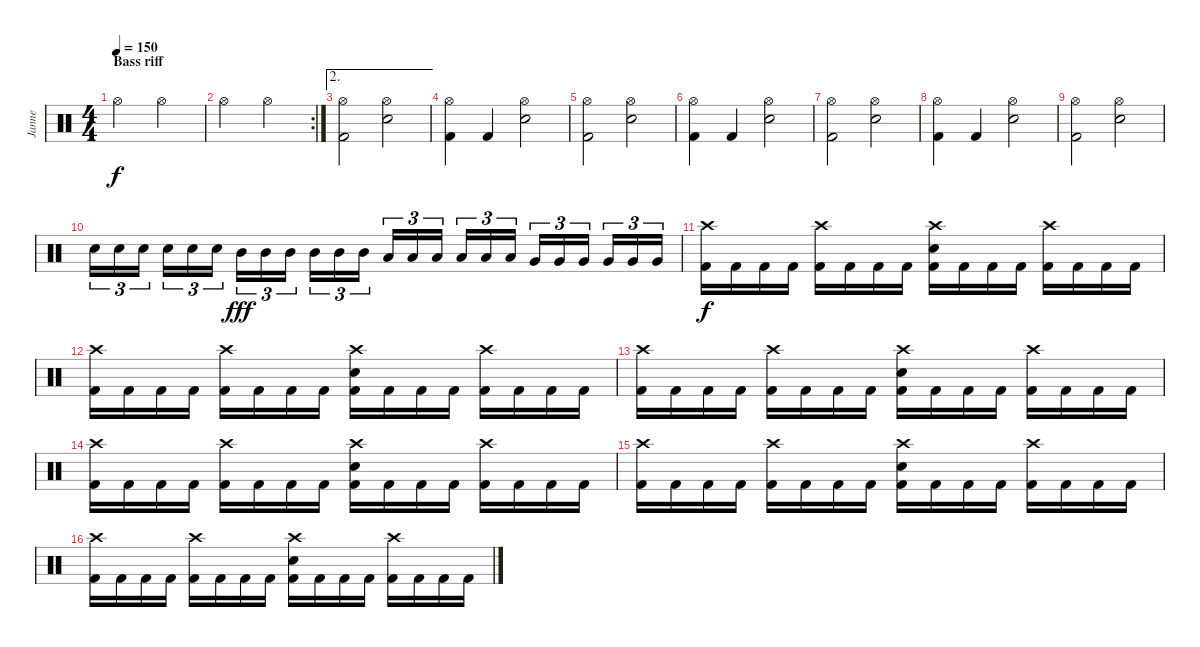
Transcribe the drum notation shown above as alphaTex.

\track ("Janne" "Janne") {instrument percussion}
\staff {score}
\articulation defaults
\ts (4 4)
\section ("" "Bass riff")
\tempo 150
\clef neutral
\ks c "Hi-Hat (open)".2{dy f} "Hi-Hat (open)".2
|
\rc 2 "Hi-Hat (open)".2 "Hi-Hat (open)".2
|
\ae 2
("Hi-Hat (open)" "Kick (hit) 2").2 ("Hi-Hat (open)" "Electric Snare (hit)").2 |
("Hi-Hat (open)" "Kick (hit) 2").4 "Kick (hit) 2".4 ("Hi-Hat (open)" "Electric Snare (hit)").2 |
("Hi-Hat (open)" "Kick (hit) 2").2 ("Hi-Hat (open)" "Electric Snare (hit)").2 |
("Hi-Hat (open)" "Kick (hit) 2").4 "Kick (hit) 2".4 ("Hi-Hat (open)" "Electric Snare (hit)").2 |
("Hi-Hat (open)" "Kick (hit) 2").2 ("Hi-Hat (open)" "Electric Snare (hit)").2 |
("Hi-Hat (open)" "Kick (hit) 2").4 "Kick (hit) 2".4 ("Hi-Hat (open)" "Electric Snare (hit)").2 |
("Hi-Hat (open)" "Kick (hit) 2").2 ("Hi-Hat (open)" "Electric Snare (hit)").2 |
"Electric Snare (hit)".16{tu (3 2)} "Electric Snare (hit)".16{tu (3 2)} "Electric Snare (hit)".16{tu (3 2)} "Electric Snare (hit)".16{tu (3 2)} "Electric Snare (hit)".16{tu (3 2)} "Electric Snare (hit)".16{tu (3 2)} "Mid Tom (hit)".16{tu (3 2) dy fff} "Mid Tom (hit)".16{tu (3 2)} "Mid Tom (hit)".16{tu (3 2)} "Mid Tom (hit)".16{tu (3 2)} "Mid Tom (hit)".16{tu (3 2)} "Mid Tom (hit)".16{tu (3 2)} "Low Tom (hit)".16{tu (3 2)} "Low Tom (hit)".16{tu (3 2)} "Low Tom (hit)".16{tu (3 2)} "Low Tom (hit)".16{tu (3 2)} "Low Tom (hit)".16{tu (3 2)} "Low Tom (hit)".16{tu (3 2)} "Very Low Tom (hit)".16{tu (3 2)} "Very Low Tom (hit)".16{tu (3 2)} "Very Low Tom (hit)".16{tu (3 2)} "Very Low Tom (hit)".16{tu (3 2)} "Very Low Tom (hit)".16{tu (3 2)} "Very Low Tom (hit)".16{tu (3 2)} |
("Crash high (hit)" "Kick (hit) 2").16{dy f} "Kick (hit) 2".16 "Kick (hit) 2".16 "Kick (hit) 2".16 ("Crash high (hit)" "Kick (hit) 2").16 "Kick (hit) 2".16 "Kick (hit) 2".16 "Kick (hit) 2".16 ("Crash high (hit)" "Electric Snare (hit)" "Kick (hit) 2").16 "Kick (hit) 2".16 "Kick (hit) 2".16 "Kick (hit) 2".16 ("Crash high (hit)" "Kick (hit) 2").16 "Kick (hit) 2".16 "Kick (hit) 2".16 "Kick (hit) 2".16 |
("Crash high (hit)" "Kick (hit) 2").16 "Kick (hit) 2".16 "Kick (hit) 2".16 "Kick (hit) 2".16 ("Crash high (hit)" "Kick (hit) 2").16 "Kick (hit) 2".16 "Kick (hit) 2".16 "Kick (hit) 2".16 ("Crash high (hit)" "Electric Snare (hit)" "Kick (hit) 2").16 "Kick (hit) 2".16 "Kick (hit) 2".16 "Kick (hit) 2".16 ("Crash high (hit)" "Kick (hit) 2").16 "Kick (hit) 2".16 "Kick (hit) 2".16 "Kick (hit) 2".16 |
("Crash high (hit)" "Kick (hit) 2").16 "Kick (hit) 2".16 "Kick (hit) 2".16 "Kick (hit) 2".16 ("Crash high (hit)" "Kick (hit) 2").16 "Kick (hit) 2".16 "Kick (hit) 2".16 "Kick (hit) 2".16 ("Crash high (hit)" "Electric Snare (hit)" "Kick (hit) 2").16 "Kick (hit) 2".16 "Kick (hit) 2".16 "Kick (hit) 2".16 ("Crash high (hit)" "Kick (hit) 2").16 "Kick (hit) 2".16 "Kick (hit) 2".16 "Kick (hit) 2".16 |
("Crash high (hit)" "Kick (hit) 2").16 "Kick (hit) 2".16 "Kick (hit) 2".16 "Kick (hit) 2".16 ("Crash high (hit)" "Kick (hit) 2").16 "Kick (hit) 2".16 "Kick (hit) 2".16 "Kick (hit) 2".16 ("Crash high (hit)" "Electric Snare (hit)" "Kick (hit) 2").16 "Kick (hit) 2".16 "Kick (hit) 2".16 "Kick (hit) 2".16 ("Crash high (hit)" "Kick (hit) 2").16 "Kick (hit) 2".16 "Kick (hit) 2".16 "Kick (hit) 2".16 |
("Crash high (hit)" "Kick (hit) 2").16 "Kick (hit) 2".16 "Kick (hit) 2".16 "Kick (hit) 2".16 ("Crash high (hit)" "Kick (hit) 2").16 "Kick (hit) 2".16 "Kick (hit) 2".16 "Kick (hit) 2".16 ("Crash high (hit)" "Electric Snare (hit)" "Kick (hit) 2").16 "Kick (hit) 2".16 "Kick (hit) 2".16 "Kick (hit) 2".16 ("Crash high (hit)" "Kick (hit) 2").16 "Kick (hit) 2".16 "Kick (hit) 2".16 "Kick (hit) 2".16 |
("Crash high (hit)" "Kick (hit) 2").16 "Kick (hit) 2".16 "Kick (hit) 2".16 "Kick (hit) 2".16 ("Crash high (hit)" "Kick (hit) 2").16 "Kick (hit) 2".16 "Kick (hit) 2".16 "Kick (hit) 2".16 ("Crash high (hit)" "Electric Snare (hit)" "Kick (hit) 2").16 "Kick (hit) 2".16 "Kick (hit) 2".16 "Kick (hit) 2".16 ("Crash high (hit)" "Kick (hit) 2").16 "Kick (hit) 2".16 "Kick (hit) 2".16 "Kick (hit) 2".16
